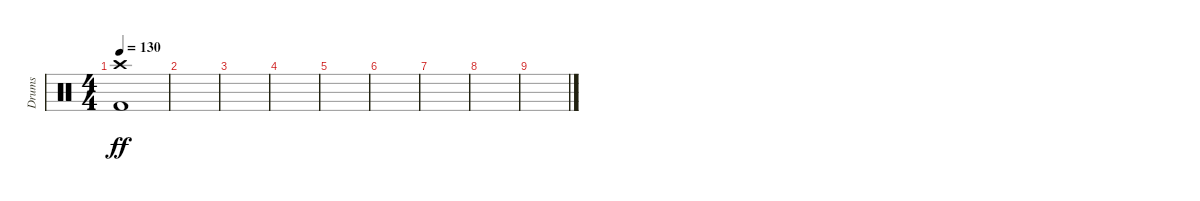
\track ("Drums" "Drums") {instrument percussion}
\staff {score}
\articulation defaults
\ts (4 4)
\tempo 130
\clef neutral
\ks c
("Crash high (hit)" "Kick (hit) 2").1{dy ff} |
|
|
|
|
|
|
|
\section ("" "")
